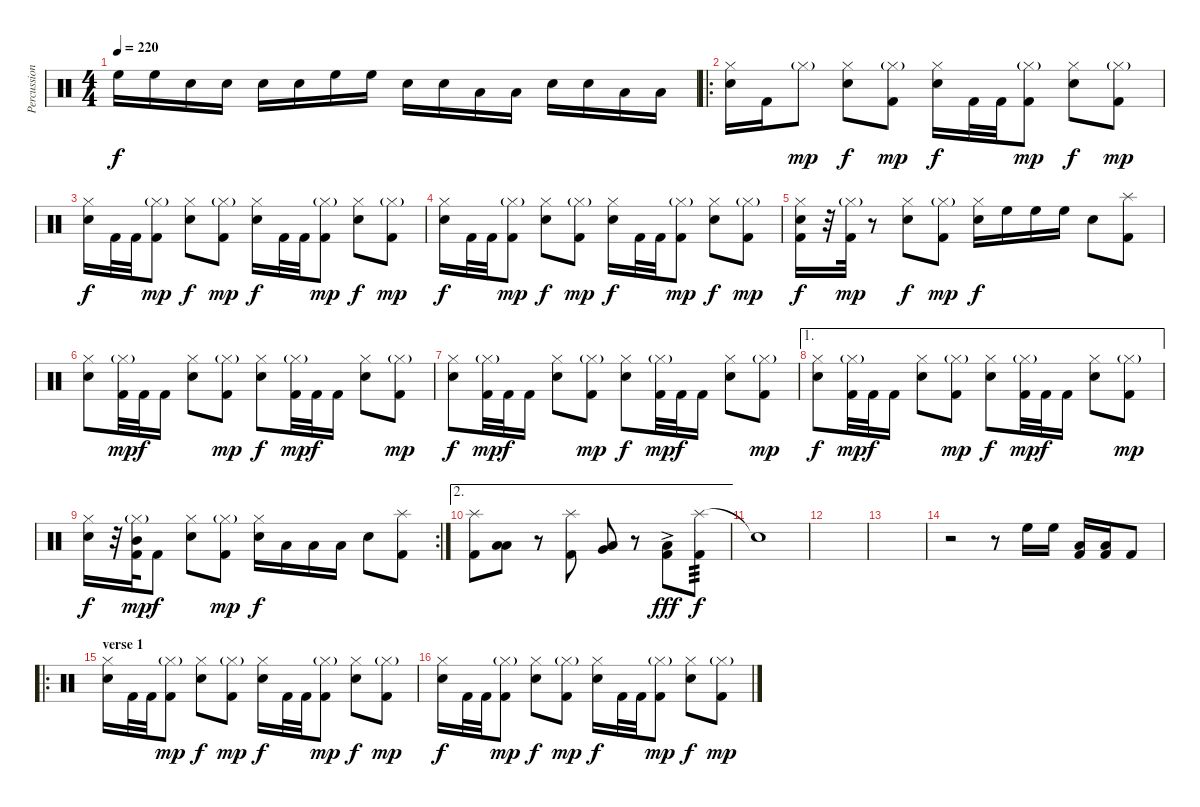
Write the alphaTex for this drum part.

\track ("Percussion" "Percussion") {instrument percussion}
\staff {score}
\articulation defaults
\ts (4 4)
\tempo 220
\clef neutral
\ks c "High Floor Tom (hit)".16{dy f} "High Floor Tom (hit)".16 "Electric Snare (hit)".16 "Electric Snare (hit)".16 "Electric Snare (hit)".16 "Electric Snare (hit)".16 "High Floor Tom (hit)".16 "High Floor Tom (hit)".16 "Electric Snare (hit)".16 "Electric Snare (hit)".16 "Low Tom (hit)".16 "Low Tom (hit)".16 "Electric Snare (hit)".16 "Electric Snare (hit)".16 "Low Floor Tom (hit)".16 "Low Floor Tom (hit)".16
|
\ro
("Hi-Hat (closed)" "Electric Snare (hit)").16 "Kick (hit) 2".16 "Hi-Hat (closed)"{g}.8{dy mp} ("Hi-Hat (closed)" "Electric Snare (hit)").8{dy f} ("Hi-Hat (closed)"{g} "Kick (hit) 2").8{dy mp} ("Hi-Hat (closed)" "Electric Snare (hit)").16{dy f} "Kick (hit) 2".32 "Kick (hit) 2".32 ("Hi-Hat (closed)"{g} "Kick (hit) 2").8{dy mp} ("Hi-Hat (closed)" "Electric Snare (hit)").8{dy f} ("Hi-Hat (closed)"{g} "Kick (hit) 2").8{dy mp} |
("Hi-Hat (closed)" "Electric Snare (hit)").16{dy f} "Kick (hit) 2".32 "Kick (hit) 2".32 ("Hi-Hat (closed)"{g} "Kick (hit) 2").8{dy mp} ("Hi-Hat (closed)" "Electric Snare (hit)").8{dy f} ("Hi-Hat (closed)"{g} "Kick (hit) 2").8{dy mp} ("Hi-Hat (closed)" "Electric Snare (hit)").16{dy f} "Kick (hit) 2".32 "Kick (hit) 2".32 ("Hi-Hat (closed)"{g} "Kick (hit) 2").8{dy mp} ("Hi-Hat (closed)" "Electric Snare (hit)").8{dy f} ("Hi-Hat (closed)"{g} "Kick (hit) 2").8{dy mp} |
("Hi-Hat (closed)" "Electric Snare (hit)").16{dy f} "Kick (hit) 2".32 "Kick (hit) 2".32 ("Hi-Hat (closed)"{g} "Kick (hit) 2").8{dy mp} ("Hi-Hat (closed)" "Electric Snare (hit)").8{dy f} ("Hi-Hat (closed)"{g} "Kick (hit) 2").8{dy mp} ("Hi-Hat (closed)" "Electric Snare (hit)").16{dy f} "Kick (hit) 2".32 "Kick (hit) 2".32 ("Hi-Hat (closed)"{g} "Kick (hit) 2").8{dy mp} ("Hi-Hat (closed)" "Electric Snare (hit)").8{dy f} ("Hi-Hat (closed)"{g} "Kick (hit) 2").8{dy mp} |
("Hi-Hat (closed)" "Electric Snare (hit)" "Kick (hit) 2").16{dy f} r.32 ("Hi-Hat (closed)"{g} "Kick (hit) 2").32{dy mp} r.8 ("Hi-Hat (closed)" "Electric Snare (hit)").8{dy f} ("Hi-Hat (closed)"{g} "Kick (hit) 2").8{dy mp} ("Hi-Hat (closed)" "Electric Snare (hit)").16{dy f} "High Floor Tom (hit)".16 "High Floor Tom (hit)".16 "High Floor Tom (hit)".16 "Electric Snare (hit)".8 ("Splash (hit)" "Kick (hit) 2").8 |
("Hi-Hat (closed)" "Electric Snare (hit)").8 ("Hi-Hat (closed)"{g} "Kick (hit) 2").32{dy mp} "Kick (hit) 2".32{dy f} "Kick (hit) 2".16 ("Hi-Hat (closed)" "Electric Snare (hit)").8 ("Hi-Hat (closed)"{g} "Kick (hit) 2").8{dy mp} ("Hi-Hat (closed)" "Electric Snare (hit)").8{dy f} ("Hi-Hat (closed)"{g} "Kick (hit) 2").32{dy mp} "Kick (hit) 2".32{dy f} "Kick (hit) 2".16 ("Hi-Hat (closed)" "Electric Snare (hit)").8 ("Hi-Hat (closed)"{g} "Kick (hit) 2").8{dy mp} |
("Hi-Hat (closed)" "Electric Snare (hit)").8{dy f} ("Hi-Hat (closed)"{g} "Kick (hit) 2").32{dy mp} "Kick (hit) 2".32{dy f} "Kick (hit) 2".16 ("Hi-Hat (closed)" "Electric Snare (hit)").8 ("Hi-Hat (closed)"{g} "Kick (hit) 2").8{dy mp} ("Hi-Hat (closed)" "Electric Snare (hit)").8{dy f} ("Hi-Hat (closed)"{g} "Kick (hit) 2").32{dy mp} "Kick (hit) 2".32{dy f} "Kick (hit) 2".16 ("Hi-Hat (closed)" "Electric Snare (hit)").8 ("Hi-Hat (closed)"{g} "Kick (hit) 2").8{dy mp} |
\ae 1
("Hi-Hat (closed)" "Electric Snare (hit)").8{dy f} ("Hi-Hat (closed)"{g} "Kick (hit) 2").32{dy mp} "Kick (hit) 2".32{dy f} "Kick (hit) 2".16 ("Hi-Hat (closed)" "Electric Snare (hit)").8 ("Hi-Hat (closed)"{g} "Kick (hit) 2").8{dy mp} ("Hi-Hat (closed)" "Electric Snare (hit)").8{dy f} ("Hi-Hat (closed)"{g} "Kick (hit) 2").32{dy mp} "Kick (hit) 2".32{dy f} "Kick (hit) 2".16 ("Hi-Hat (closed)" "Electric Snare (hit)").8 ("Hi-Hat (closed)"{g} "Kick (hit) 2").8{dy mp} |
\rc 2
("Hi-Hat (closed)" "Electric Snare (hit)").16{dy f} r.32 ("Hi-Hat (closed)"{g} "Mid Tom (hit)" "Kick (hit) 2").32{dy mp} "Kick (hit) 2".8{dy f} ("Hi-Hat (closed)" "Electric Snare (hit)").8 ("Hi-Hat (closed)"{g} "Kick (hit) 2").8{dy mp} ("Hi-Hat (closed)" "Electric Snare (hit)").16{dy f} "Low Tom (hit)".16 "Low Tom (hit)".16 "Low Tom (hit)".16 "Electric Snare (hit)".8 ("Splash (hit)" "Kick (hit) 2").8 |
\ae 2
("Splash (hit)" "Kick (hit) 2").8 ("Low Tom (hit)" "Low Floor Tom (hit)").8 r.8 ("Splash (hit)" "Kick (hit) 2").8 ("Very Low Tom (hit)" "Low Floor Tom (hit)").8 r.8 ("Low Floor Tom (hit)"{ac} "Kick (hit) 2").8{dy fff} ("Splash (hit)" "Kick (hit) 2").8{tp 3 dy f volume 0} |
"Snare (hit)"{t}.1 |
|
|
r.2 r.8 "High Floor Tom (hit)".16{volume 16} "High Floor Tom (hit)".16 ("Low Tom (hit)" "Kick (hit) 2").16 ("Low Tom (hit)" "Kick (hit) 2").16 "Kick (hit) 2".8 |
\ro
\section ("" "verse 1")
("Hi-Hat (closed)" "Electric Snare (hit)").16 "Kick (hit) 2".32 "Kick (hit) 2".32 ("Hi-Hat (closed)"{g} "Kick (hit) 2").8{dy mp} ("Hi-Hat (closed)" "Electric Snare (hit)").8{dy f} ("Hi-Hat (closed)"{g} "Kick (hit) 2").8{dy mp} ("Hi-Hat (closed)" "Electric Snare (hit)").16{dy f} "Kick (hit) 2".32 "Kick (hit) 2".32 ("Hi-Hat (closed)"{g} "Kick (hit) 2").8{dy mp} ("Hi-Hat (closed)" "Electric Snare (hit)").8{dy f} ("Hi-Hat (closed)"{g} "Kick (hit) 2").8{dy mp} |
("Hi-Hat (closed)" "Electric Snare (hit)").16{dy f} "Kick (hit) 2".32 "Kick (hit) 2".32 ("Hi-Hat (closed)"{g} "Kick (hit) 2").8{dy mp} ("Hi-Hat (closed)" "Electric Snare (hit)").8{dy f} ("Hi-Hat (closed)"{g} "Kick (hit) 2").8{dy mp} ("Hi-Hat (closed)" "Electric Snare (hit)").16{dy f} "Kick (hit) 2".32 "Kick (hit) 2".32 ("Hi-Hat (closed)"{g} "Kick (hit) 2").8{dy mp} ("Hi-Hat (closed)" "Electric Snare (hit)").8{dy f} ("Hi-Hat (closed)"{g} "Kick (hit) 2").8{dy mp}
